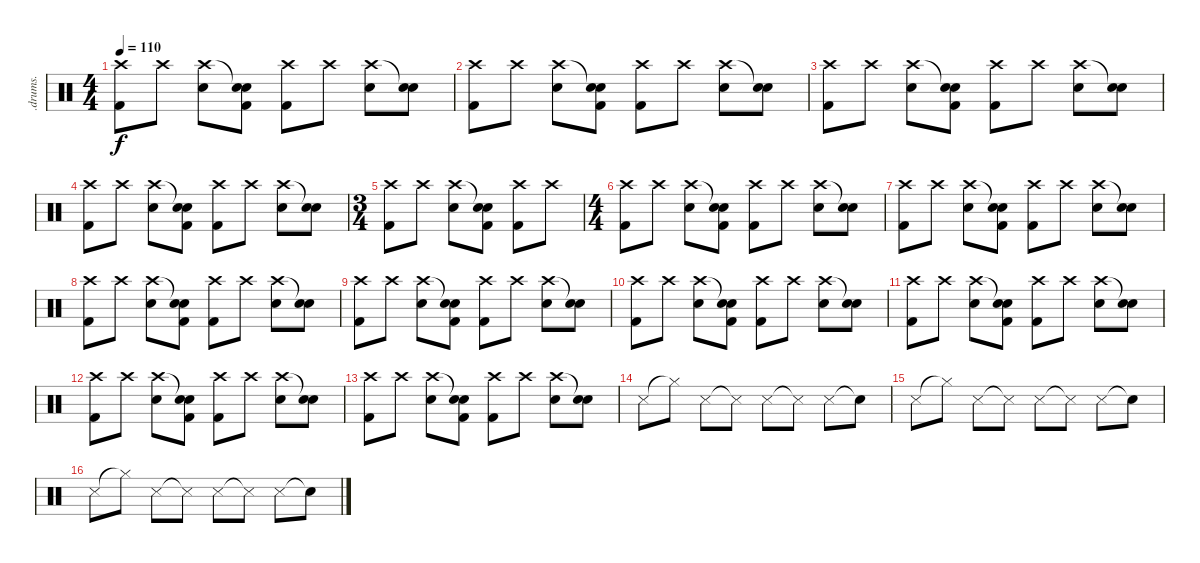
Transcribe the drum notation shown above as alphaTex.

\track (".drums." ".drums.") {instrument percussion}
\staff {score}
\articulation defaults
\ts (4 4)
\tempo 110
\clef neutral
\ks c
("Crash high (hit)" "Kick (hit) 2").8{dy f} "Crash high (hit)".8 ("Crash high (hit)" "Snare (hit) 2").8 ("Snare (hit)"{t} "Snare (hit) 2" "Kick (hit) 2").8 ("Crash high (hit)" "Kick (hit) 2").8 "Crash high (hit)".8 ("Crash high (hit)" "Snare (hit) 2").8 ("Snare (hit)"{t} "Snare (hit) 2").8 |
("Crash high (hit)" "Kick (hit) 2").8 "Crash high (hit)".8 ("Crash high (hit)" "Snare (hit) 2").8 ("Snare (hit)"{t} "Snare (hit) 2" "Kick (hit) 2").8 ("Crash high (hit)" "Kick (hit) 2").8 "Crash high (hit)".8 ("Crash high (hit)" "Snare (hit) 2").8 ("Snare (hit)"{t} "Snare (hit) 2").8 |
("Crash high (hit)" "Kick (hit) 2").8 "Crash high (hit)".8 ("Crash high (hit)" "Snare (hit) 2").8 ("Snare (hit)"{t} "Snare (hit) 2" "Kick (hit) 2").8 ("Crash high (hit)" "Kick (hit) 2").8 "Crash high (hit)".8 ("Crash high (hit)" "Snare (hit) 2").8 ("Snare (hit)"{t} "Snare (hit) 2").8 |
("Crash high (hit)" "Kick (hit) 2").8 "Crash high (hit)".8 ("Crash high (hit)" "Snare (hit) 2").8 ("Snare (hit)"{t} "Snare (hit) 2" "Kick (hit) 2").8 ("Crash high (hit)" "Kick (hit) 2").8 "Crash high (hit)".8 ("Crash high (hit)" "Snare (hit) 2").8 ("Snare (hit)"{t} "Snare (hit) 2").8 |
\ts (3 4)
("Crash high (hit)" "Kick (hit) 2").8 "Crash high (hit)".8 ("Crash high (hit)" "Snare (hit) 2").8 ("Snare (hit)"{t} "Snare (hit) 2" "Kick (hit) 2").8 ("Crash high (hit)" "Kick (hit) 2").8 "Crash high (hit)".8 |
\ts (4 4)
("Crash high (hit)" "Kick (hit) 2").8 "Crash high (hit)".8 ("Crash high (hit)" "Snare (hit) 2").8 ("Snare (hit)"{t} "Snare (hit) 2" "Kick (hit) 2").8 ("Crash high (hit)" "Kick (hit) 2").8 "Crash high (hit)".8 ("Crash high (hit)" "Snare (hit) 2").8 ("Snare (hit)"{t} "Snare (hit) 2").8 |
("Crash high (hit)" "Kick (hit) 2").8 "Crash high (hit)".8 ("Crash high (hit)" "Snare (hit) 2").8 ("Snare (hit)"{t} "Snare (hit) 2" "Kick (hit) 2").8 ("Crash high (hit)" "Kick (hit) 2").8 "Crash high (hit)".8 ("Crash high (hit)" "Snare (hit) 2").8 ("Snare (hit)"{t} "Snare (hit) 2").8 |
("Crash high (hit)" "Kick (hit) 2").8 "Crash high (hit)".8 ("Crash high (hit)" "Snare (hit) 2").8 ("Snare (hit)"{t} "Snare (hit) 2" "Kick (hit) 2").8 ("Crash high (hit)" "Kick (hit) 2").8 "Crash high (hit)".8 ("Crash high (hit)" "Snare (hit) 2").8 ("Snare (hit)"{t} "Snare (hit) 2").8 |
("Crash high (hit)" "Kick (hit) 2").8 "Crash high (hit)".8 ("Crash high (hit)" "Snare (hit) 2").8 ("Snare (hit)"{t} "Snare (hit) 2" "Kick (hit) 2").8 ("Crash high (hit)" "Kick (hit) 2").8 "Crash high (hit)".8 ("Crash high (hit)" "Snare (hit) 2").8 ("Snare (hit)"{t} "Snare (hit) 2").8 |
("Crash high (hit)" "Kick (hit) 2").8 "Crash high (hit)".8 ("Crash high (hit)" "Snare (hit) 2").8 ("Snare (hit)"{t} "Snare (hit) 2" "Kick (hit) 2").8 ("Crash high (hit)" "Kick (hit) 2").8 "Crash high (hit)".8 ("Crash high (hit)" "Snare (hit) 2").8 ("Snare (hit)"{t} "Snare (hit) 2").8 |
("Crash high (hit)" "Kick (hit) 2").8 "Crash high (hit)".8 ("Crash high (hit)" "Snare (hit) 2").8 ("Snare (hit)"{t} "Snare (hit) 2" "Kick (hit) 2").8 ("Crash high (hit)" "Kick (hit) 2").8 "Crash high (hit)".8 ("Crash high (hit)" "Snare (hit) 2").8 ("Snare (hit)"{t} "Snare (hit) 2").8 |
("Crash high (hit)" "Kick (hit) 2").8 "Crash high (hit)".8 ("Crash high (hit)" "Snare (hit) 2").8 ("Snare (hit)"{t} "Snare (hit) 2" "Kick (hit) 2").8 ("Crash high (hit)" "Kick (hit) 2").8 "Crash high (hit)".8 ("Crash high (hit)" "Snare (hit) 2").8 ("Snare (hit)"{t} "Snare (hit) 2").8 |
("Crash high (hit)" "Kick (hit) 2").8 "Crash high (hit)".8 ("Crash high (hit)" "Snare (hit) 2").8 ("Snare (hit)"{t} "Snare (hit) 2" "Kick (hit) 2").8 ("Crash high (hit)" "Kick (hit) 2").8 "Crash high (hit)".8 ("Crash high (hit)" "Snare (hit) 2").8 ("Snare (hit)"{t} "Snare (hit) 2").8 |
"Snare (side stick) 3".8 "Hi-Hat (closed)"{t}.8 "Snare (side stick) 3".8 "Snare (side stick) 3"{t}.8 "Snare (side stick) 3".8 "Snare (side stick) 3"{t}.8 "Snare (side stick) 3".8 "Snare (hit)"{t}.8 |
"Snare (side stick) 3".8 "Hi-Hat (closed)"{t}.8 "Snare (side stick) 3".8 "Snare (side stick) 3"{t}.8 "Snare (side stick) 3".8 "Snare (side stick) 3"{t}.8 "Snare (side stick) 3".8 "Snare (hit)"{t}.8 |
"Snare (side stick) 3".8 "Hi-Hat (closed)"{t}.8 "Snare (side stick) 3".8 "Snare (side stick) 3"{t}.8 "Snare (side stick) 3".8 "Snare (side stick) 3"{t}.8 "Snare (side stick) 3".8 "Snare (hit)"{t}.8
